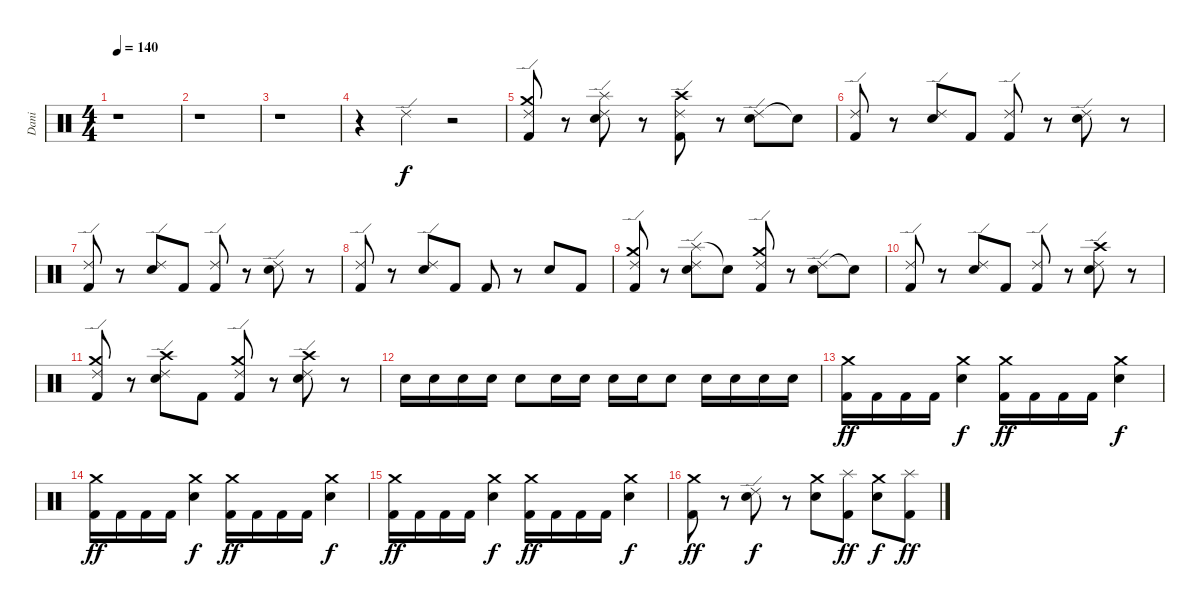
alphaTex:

\track ("Dani" "Dani") {instrument percussion}
\staff {score}
\articulation defaults
\ts (4 4)
\tempo 140
\clef neutral
\ks c
r.1{dy f} |
r.1 |
r.1 |
r.4 "Ride (edge) 2".4 r.2 |
("Crash medium (hit)" "Ride (edge) 2" "Kick (hit) 2").8 r.8 ("Splash (hit)" "Ride (edge) 2" "Snare (hit) 2").8 r.8 ("Crash high (hit)" "Ride (edge) 2" "Kick (hit) 2").8 r.8 ("Ride (edge) 2" "Snare (hit) 2").8 "Snare (hit)"{t}.8 |
("Ride (edge) 2" "Kick (hit) 2").8 r.8 ("Ride (edge) 2" "Snare (hit) 2").8 "Kick (hit) 2".8 ("Ride (edge) 2" "Kick (hit) 2").8 r.8 ("Ride (edge) 2" "Snare (hit) 2").8 r.8 |
("Ride (edge) 2" "Kick (hit) 2").8 r.8 ("Ride (edge) 2" "Snare (hit) 2").8 "Kick (hit) 2".8 ("Ride (edge) 2" "Kick (hit) 2").8 r.8 ("Ride (edge) 2" "Snare (hit) 2").8 r.8 |
("Ride (edge) 2" "Kick (hit) 2").8 r.8 ("Ride (edge) 2" "Snare (hit) 2").8 "Kick (hit) 2".8 "Kick (hit) 2".8 r.8 "Snare (hit) 2".8 "Kick (hit) 2".8 |
("Crash medium (hit)" "Ride (edge) 2" "Kick (hit) 2").8 r.8 ("Splash (hit)" "Ride (edge) 2" "Snare (hit) 2").8 "Snare (hit)"{t}.8 ("Crash medium (hit)" "Ride (edge) 2" "Kick (hit) 2").8 r.8 ("Ride (edge) 2" "Snare (hit) 2").8 "Snare (hit)"{t}.8 |
("Ride (edge) 2" "Kick (hit) 2").8 r.8 ("Ride (edge) 2" "Snare (hit) 2").8 "Kick (hit) 2".8 ("Ride (edge) 2" "Kick (hit) 2").8 r.8 ("Crash high (hit)" "Ride (edge) 2" "Snare (hit) 2").8 r.8 |
("Crash medium (hit)" "Ride (edge) 2" "Kick (hit) 2").8 r.8 ("Crash high (hit)" "Ride (edge) 2" "Snare (hit) 2").8 "Kick (hit) 2".8 ("Crash medium (hit)" "Ride (edge) 2" "Kick (hit) 2").8 r.8 ("Crash high (hit)" "Ride (edge) 2" "Snare (hit) 2").8 r.8 |
"Snare (hit) 2".16 "Snare (hit) 2".16 "Snare (hit) 2".16 "Snare (hit) 2".16 "Snare (hit) 2".8 "Snare (hit) 2".16 "Snare (hit) 2".16 "Snare (hit) 2".16 "Snare (hit) 2".16 "Snare (hit) 2".8 "Snare (hit) 2".16 "Snare (hit) 2".16 "Snare (hit) 2".16 "Snare (hit) 2".16 |
("Crash medium (hit)" "Kick (hit) 2").16{dy ff} "Kick (hit) 2".16 "Kick (hit) 2".16 "Kick (hit) 2".16 ("Crash medium (hit)" "Snare (hit) 2").4{dy f} ("Crash medium (hit)" "Kick (hit) 2").16{dy ff} "Kick (hit) 2".16 "Kick (hit) 2".16 "Kick (hit) 2".16 ("Crash medium (hit)" "Snare (hit) 2").4{dy f} |
("Crash medium (hit)" "Kick (hit) 2").16{dy ff} "Kick (hit) 2".16 "Kick (hit) 2".16 "Kick (hit) 2".16 ("Crash medium (hit)" "Snare (hit) 2").4{dy f} ("Crash medium (hit)" "Kick (hit) 2").16{dy ff} "Kick (hit) 2".16 "Kick (hit) 2".16 "Kick (hit) 2".16 ("Crash medium (hit)" "Snare (hit) 2").4{dy f} |
("Crash medium (hit)" "Kick (hit) 2").16{dy ff} "Kick (hit) 2".16 "Kick (hit) 2".16 "Kick (hit) 2".16 ("Crash medium (hit)" "Snare (hit) 2").4{dy f} ("Crash medium (hit)" "Kick (hit) 2").16{dy ff} "Kick (hit) 2".16 "Kick (hit) 2".16 "Kick (hit) 2".16 ("Crash medium (hit)" "Snare (hit) 2").4{dy f} |
("Crash medium (hit)" "Kick (hit) 2").8{dy ff} r.8 ("Ride (edge) 2" "Snare (hit) 2").8{dy f} r.8 ("Crash medium (hit)" "Snare (hit) 2").8 ("Splash (hit)" "Kick (hit) 2").8{dy ff} ("Crash medium (hit)" "Snare (hit) 2").8{dy f} ("Splash (hit)" "Kick (hit) 2").8{dy ff}
